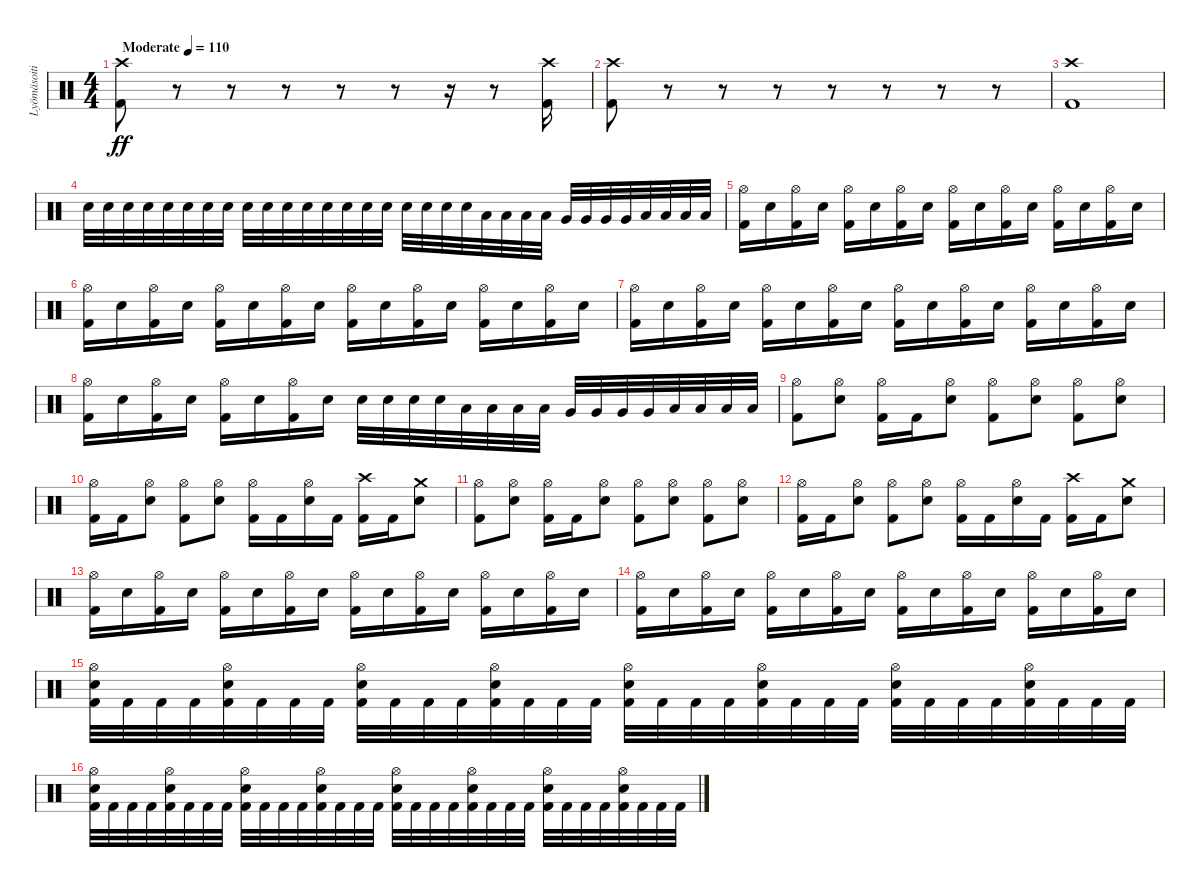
\track ("Lyömäsoitin" "Lyömäsoiti") {instrument percussion}
\staff {score}
\articulation defaults
\ts (4 4)
\tempo (110 "Moderate")
\clef neutral
\ks c
("Kick (hit) 2" "Crash high (hit)").8{dy ff} r.8 r.8 r.8 r.8 r.8 r.16 r.8 ("Kick (hit) 2" "Crash high (hit)").16 |
("Kick (hit) 2" "Crash high (hit)").8 r.8 r.8 r.8 r.8 r.8 r.8 r.8 |
("Kick (hit) 2" "Crash high (hit)").1 |
"Snare (hit) 2".32 "Snare (hit) 2".32 "Snare (hit) 2".32 "Snare (hit) 2".32 "Snare (hit) 2".32 "Snare (hit) 2".32 "Snare (hit) 2".32 "Snare (hit) 2".32 "Snare (hit) 2".32 "Snare (hit) 2".32 "Snare (hit) 2".32 "Snare (hit) 2".32 "Snare (hit) 2".32 "Snare (hit) 2".32 "Snare (hit) 2".32 "Snare (hit) 2".32 "Snare (hit) 2".32 "Snare (hit) 2".32 "Snare (hit) 2".32 "Snare (hit) 2".32 "Low Tom (hit)".32 "Low Tom (hit)".32 "Low Tom (hit)".32 "Low Tom (hit)".32 "Very Low Tom (hit)".32 "Very Low Tom (hit)".32 "Very Low Tom (hit)".32 "Very Low Tom (hit)".32 "Low Floor Tom (hit)".32 "Low Floor Tom (hit)".32 "Low Floor Tom (hit)".32 "Low Floor Tom (hit)".32 |
("Hi-Hat (open)" "Kick (hit) 2").16 "Snare (hit) 2".16 ("Hi-Hat (open)" "Kick (hit) 2").16 "Snare (hit) 2".16 ("Hi-Hat (open)" "Kick (hit) 2").16 "Snare (hit) 2".16 ("Hi-Hat (open)" "Kick (hit) 2").16 "Snare (hit) 2".16 ("Hi-Hat (open)" "Kick (hit) 2").16 "Snare (hit) 2".16 ("Hi-Hat (open)" "Kick (hit) 2").16 "Snare (hit) 2".16 ("Hi-Hat (open)" "Kick (hit) 2").16 "Snare (hit) 2".16 ("Hi-Hat (open)" "Kick (hit) 2").16 "Snare (hit) 2".16 |
("Hi-Hat (open)" "Kick (hit) 2").16 "Snare (hit) 2".16 ("Hi-Hat (open)" "Kick (hit) 2").16 "Snare (hit) 2".16 ("Hi-Hat (open)" "Kick (hit) 2").16 "Snare (hit) 2".16 ("Hi-Hat (open)" "Kick (hit) 2").16 "Snare (hit) 2".16 ("Hi-Hat (open)" "Kick (hit) 2").16 "Snare (hit) 2".16 ("Hi-Hat (open)" "Kick (hit) 2").16 "Snare (hit) 2".16 ("Hi-Hat (open)" "Kick (hit) 2").16 "Snare (hit) 2".16 ("Hi-Hat (open)" "Kick (hit) 2").16 "Snare (hit) 2".16 |
("Hi-Hat (open)" "Kick (hit) 2").16 "Snare (hit) 2".16 ("Hi-Hat (open)" "Kick (hit) 2").16 "Snare (hit) 2".16 ("Hi-Hat (open)" "Kick (hit) 2").16 "Snare (hit) 2".16 ("Hi-Hat (open)" "Kick (hit) 2").16 "Snare (hit) 2".16 ("Hi-Hat (open)" "Kick (hit) 2").16 "Snare (hit) 2".16 ("Hi-Hat (open)" "Kick (hit) 2").16 "Snare (hit) 2".16 ("Hi-Hat (open)" "Kick (hit) 2").16 "Snare (hit) 2".16 ("Hi-Hat (open)" "Kick (hit) 2").16 "Snare (hit) 2".16 |
("Hi-Hat (open)" "Kick (hit) 2").16 "Snare (hit) 2".16 ("Hi-Hat (open)" "Kick (hit) 2").16 "Snare (hit) 2".16 ("Hi-Hat (open)" "Kick (hit) 2").16 "Snare (hit) 2".16 ("Hi-Hat (open)" "Kick (hit) 2").16 "Snare (hit) 2".16 "Snare (hit) 2".32 "Snare (hit) 2".32 "Snare (hit) 2".32 "Snare (hit) 2".32 "Low Tom (hit)".32 "Low Tom (hit)".32 "Low Tom (hit)".32 "Low Tom (hit)".32 "Very Low Tom (hit)".32 "Very Low Tom (hit)".32 "Very Low Tom (hit)".32 "Very Low Tom (hit)".32 "Low Floor Tom (hit)".32 "Low Floor Tom (hit)".32 "Low Floor Tom (hit)".32 "Low Floor Tom (hit)".32 |
("Hi-Hat (open)" "Kick (hit) 2").8 ("Hi-Hat (open)" "Snare (hit) 2").8 ("Hi-Hat (open)" "Kick (hit) 2").16 "Kick (hit) 2".16 ("Hi-Hat (open)" "Snare (hit) 2").8 ("Hi-Hat (open)" "Kick (hit) 2").8 ("Hi-Hat (open)" "Snare (hit) 2").8 ("Hi-Hat (open)" "Kick (hit) 2").8 ("Hi-Hat (open)" "Snare (hit) 2").8 |
("Hi-Hat (open)" "Kick (hit) 2").16 "Kick (hit) 2".16 ("Hi-Hat (open)" "Snare (hit) 2").8 ("Hi-Hat (open)" "Kick (hit) 2").8 ("Hi-Hat (open)" "Snare (hit) 2").8 ("Hi-Hat (open)" "Kick (hit) 2").16 "Kick (hit) 2".16 ("Hi-Hat (open)" "Snare (hit) 2").16 "Kick (hit) 2".16 ("Crash high (hit)" "Kick (hit) 2").16 "Kick (hit) 2".16 ("Crash medium (hit)" "Snare (hit) 2").8 |
("Hi-Hat (open)" "Kick (hit) 2").8 ("Hi-Hat (open)" "Snare (hit) 2").8 ("Hi-Hat (open)" "Kick (hit) 2").16 "Kick (hit) 2".16 ("Hi-Hat (open)" "Snare (hit) 2").8 ("Hi-Hat (open)" "Kick (hit) 2").8 ("Hi-Hat (open)" "Snare (hit) 2").8 ("Hi-Hat (open)" "Kick (hit) 2").8 ("Hi-Hat (open)" "Snare (hit) 2").8 |
("Hi-Hat (open)" "Kick (hit) 2").16 "Kick (hit) 2".16 ("Hi-Hat (open)" "Snare (hit) 2").8 ("Hi-Hat (open)" "Kick (hit) 2").8 ("Hi-Hat (open)" "Snare (hit) 2").8 ("Hi-Hat (open)" "Kick (hit) 2").16 "Kick (hit) 2".16 ("Hi-Hat (open)" "Snare (hit) 2").16 "Kick (hit) 2".16 ("Crash high (hit)" "Kick (hit) 2").16 "Kick (hit) 2".16 ("Crash medium (hit)" "Snare (hit) 2").8 |
("Hi-Hat (open)" "Kick (hit) 2").16 "Snare (hit) 2".16 ("Hi-Hat (open)" "Kick (hit) 2").16 "Snare (hit) 2".16 ("Hi-Hat (open)" "Kick (hit) 2").16 "Snare (hit) 2".16 ("Hi-Hat (open)" "Kick (hit) 2").16 "Snare (hit) 2".16 ("Hi-Hat (open)" "Kick (hit) 2").16 "Snare (hit) 2".16 ("Hi-Hat (open)" "Kick (hit) 2").16 "Snare (hit) 2".16 ("Hi-Hat (open)" "Kick (hit) 2").16 "Snare (hit) 2".16 ("Hi-Hat (open)" "Kick (hit) 2").16 "Snare (hit) 2".16 |
("Hi-Hat (open)" "Kick (hit) 2").16 "Snare (hit) 2".16 ("Hi-Hat (open)" "Kick (hit) 2").16 "Snare (hit) 2".16 ("Hi-Hat (open)" "Kick (hit) 2").16 "Snare (hit) 2".16 ("Hi-Hat (open)" "Kick (hit) 2").16 "Snare (hit) 2".16 ("Hi-Hat (open)" "Kick (hit) 2").16 "Snare (hit) 2".16 ("Hi-Hat (open)" "Kick (hit) 2").16 "Snare (hit) 2".16 ("Hi-Hat (open)" "Kick (hit) 2").16 "Snare (hit) 2".16 ("Hi-Hat (open)" "Kick (hit) 2").16 "Snare (hit) 2".16 |
("Hi-Hat (open)" "Snare (hit) 2" "Kick (hit) 2").32 "Kick (hit) 2".32 "Kick (hit) 2".32 "Kick (hit) 2".32 ("Hi-Hat (open)" "Snare (hit) 2" "Kick (hit) 2").32 "Kick (hit) 2".32 "Kick (hit) 2".32 "Kick (hit) 2".32 ("Hi-Hat (open)" "Snare (hit) 2" "Kick (hit) 2").32 "Kick (hit) 2".32 "Kick (hit) 2".32 "Kick (hit) 2".32 ("Hi-Hat (open)" "Snare (hit) 2" "Kick (hit) 2").32 "Kick (hit) 2".32 "Kick (hit) 2".32 "Kick (hit) 2".32 ("Hi-Hat (open)" "Snare (hit) 2" "Kick (hit) 2").32 "Kick (hit) 2".32 "Kick (hit) 2".32 "Kick (hit) 2".32 ("Hi-Hat (open)" "Snare (hit) 2" "Kick (hit) 2").32 "Kick (hit) 2".32 "Kick (hit) 2".32 "Kick (hit) 2".32 ("Hi-Hat (open)" "Snare (hit) 2" "Kick (hit) 2").32 "Kick (hit) 2".32 "Kick (hit) 2".32 "Kick (hit) 2".32 ("Hi-Hat (open)" "Snare (hit) 2" "Kick (hit) 2").32 "Kick (hit) 2".32 "Kick (hit) 2".32 "Kick (hit) 2".32 |
("Hi-Hat (open)" "Snare (hit) 2" "Kick (hit) 2").32 "Kick (hit) 2".32 "Kick (hit) 2".32 "Kick (hit) 2".32 ("Hi-Hat (open)" "Snare (hit) 2" "Kick (hit) 2").32 "Kick (hit) 2".32 "Kick (hit) 2".32 "Kick (hit) 2".32 ("Hi-Hat (open)" "Snare (hit) 2" "Kick (hit) 2").32 "Kick (hit) 2".32 "Kick (hit) 2".32 "Kick (hit) 2".32 ("Hi-Hat (open)" "Snare (hit) 2" "Kick (hit) 2").32 "Kick (hit) 2".32 "Kick (hit) 2".32 "Kick (hit) 2".32 ("Hi-Hat (open)" "Snare (hit) 2" "Kick (hit) 2").32 "Kick (hit) 2".32 "Kick (hit) 2".32 "Kick (hit) 2".32 ("Hi-Hat (open)" "Snare (hit) 2" "Kick (hit) 2").32 "Kick (hit) 2".32 "Kick (hit) 2".32 "Kick (hit) 2".32 ("Hi-Hat (open)" "Snare (hit) 2" "Kick (hit) 2").32 "Kick (hit) 2".32 "Kick (hit) 2".32 "Kick (hit) 2".32 ("Hi-Hat (open)" "Snare (hit) 2" "Kick (hit) 2").32 "Kick (hit) 2".32 "Kick (hit) 2".32 "Kick (hit) 2".32
